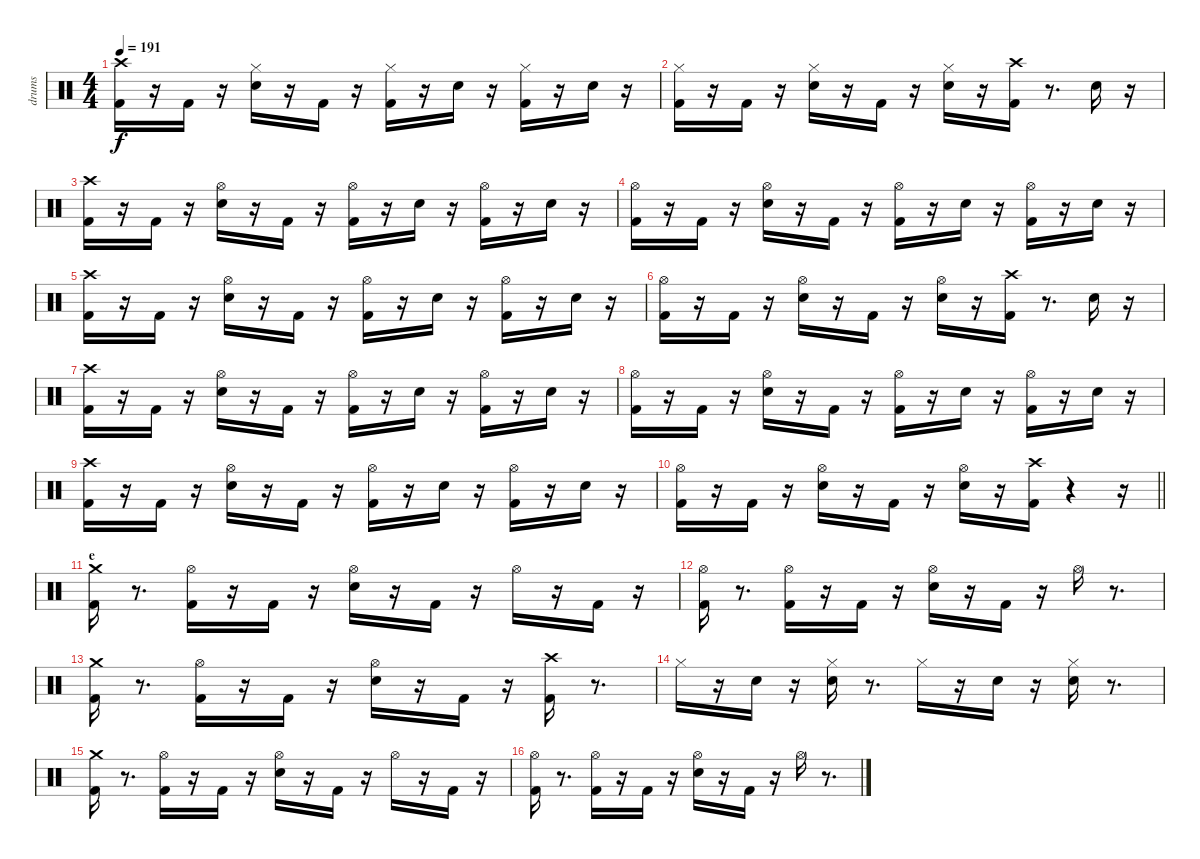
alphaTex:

\track ("drums" "drums") {instrument percussion}
\staff {score}
\articulation defaults
\ts (4 4)
\tempo 191
\clef neutral
\ks c
("Kick (hit) 2" "Crash high (hit)").16{dy f} r.16 "Kick (hit) 2".16 r.16 ("Snare (hit) 2" "Hi-Hat (closed)").16 r.16 "Kick (hit) 2".16 r.16 ("Kick (hit) 2" "Hi-Hat (closed)").16 r.16 "Snare (hit) 2".16 r.16 ("Kick (hit) 2" "Hi-Hat (closed)").16 r.16 "Snare (hit) 2".16 r.16 |
("Kick (hit) 2" "Hi-Hat (closed)").16 r.16 "Kick (hit) 2".16 r.16 ("Snare (hit) 2" "Hi-Hat (closed)").16 r.16 "Kick (hit) 2".16 r.16 ("Snare (hit) 2" "Hi-Hat (closed)").16 r.16 ("Kick (hit) 2" "Crash high (hit)").16 r.8{d} "Snare (hit) 2".16 r.16 |
("Kick (hit) 2" "Crash high (hit)").16 r.16 "Kick (hit) 2".16 r.16 ("Snare (hit) 2" "Hi-Hat (open)").16 r.16 "Kick (hit) 2".16 r.16 ("Kick (hit) 2" "Hi-Hat (open)").16 r.16 "Snare (hit) 2".16 r.16 ("Kick (hit) 2" "Hi-Hat (open)").16 r.16 "Snare (hit) 2".16 r.16 |
("Kick (hit) 2" "Hi-Hat (open)").16 r.16 "Kick (hit) 2".16 r.16 ("Snare (hit) 2" "Hi-Hat (open)").16 r.16 "Kick (hit) 2".16 r.16 ("Kick (hit) 2" "Hi-Hat (open)").16 r.16 "Snare (hit) 2".16 r.16 ("Kick (hit) 2" "Hi-Hat (open)").16 r.16 "Snare (hit) 2".16 r.16 |
("Kick (hit) 2" "Crash high (hit)").16 r.16 "Kick (hit) 2".16 r.16 ("Snare (hit) 2" "Hi-Hat (open)").16 r.16 "Kick (hit) 2".16 r.16 ("Kick (hit) 2" "Hi-Hat (open)").16 r.16 "Snare (hit) 2".16 r.16 ("Kick (hit) 2" "Hi-Hat (open)").16 r.16 "Snare (hit) 2".16 r.16 |
("Kick (hit) 2" "Hi-Hat (open)").16 r.16 "Kick (hit) 2".16 r.16 ("Snare (hit) 2" "Hi-Hat (open)").16 r.16 "Kick (hit) 2".16 r.16 ("Snare (hit) 2" "Hi-Hat (open)").16 r.16 ("Kick (hit) 2" "Crash high (hit)").16 r.8{d} "Snare (hit) 2".16 r.16 |
("Kick (hit) 2" "Crash high (hit)").16 r.16 "Kick (hit) 2".16 r.16 ("Snare (hit) 2" "Hi-Hat (open)").16 r.16 "Kick (hit) 2".16 r.16 ("Kick (hit) 2" "Hi-Hat (open)").16 r.16 "Snare (hit) 2".16 r.16 ("Kick (hit) 2" "Hi-Hat (open)").16 r.16 "Snare (hit) 2".16 r.16 |
("Kick (hit) 2" "Hi-Hat (open)").16 r.16 "Kick (hit) 2".16 r.16 ("Snare (hit) 2" "Hi-Hat (open)").16 r.16 "Kick (hit) 2".16 r.16 ("Kick (hit) 2" "Hi-Hat (open)").16 r.16 "Snare (hit) 2".16 r.16 ("Kick (hit) 2" "Hi-Hat (open)").16 r.16 "Snare (hit) 2".16 r.16 |
("Kick (hit) 2" "Crash high (hit)").16 r.16 "Kick (hit) 2".16 r.16 ("Snare (hit) 2" "Hi-Hat (open)").16 r.16 "Kick (hit) 2".16 r.16 ("Kick (hit) 2" "Hi-Hat (open)").16 r.16 "Snare (hit) 2".16 r.16 ("Kick (hit) 2" "Hi-Hat (open)").16 r.16 "Snare (hit) 2".16 r.16 |
\barLineRight lightlight
("Kick (hit) 2" "Hi-Hat (open)").16 r.16 "Kick (hit) 2".16 r.16 ("Snare (hit) 2" "Hi-Hat (open)").16 r.16 "Kick (hit) 2".16 r.16 ("Snare (hit) 2" "Hi-Hat (open)").16 r.16 ("Kick (hit) 2" "Crash high (hit)").16 r.4 r.16 |
\section ("" "e")
("Kick (hit) 2" "Crash medium (hit)").16 r.8{d} ("Kick (hit) 2" "Hi-Hat (open)").16 r.16 "Kick (hit) 2".16 r.16 ("Snare (hit) 2" "Hi-Hat (open)").16 r.16 "Kick (hit) 2".16 r.16 "Hi-Hat (open)".16 r.16 "Kick (hit) 2".16 r.16 |
("Kick (hit) 2" "Hi-Hat (open)").16 r.8{d} ("Kick (hit) 2" "Hi-Hat (open)").16 r.16 "Kick (hit) 2".16 r.16 ("Snare (hit) 2" "Hi-Hat (open)").16 r.16 "Kick (hit) 2".16 r.16 "Hi-Hat (open)".16 r.8{d} |
("Kick (hit) 2" "Crash medium (hit)").16 r.8{d} ("Kick (hit) 2" "Hi-Hat (open)").16 r.16 "Kick (hit) 2".16 r.16 ("Snare (hit) 2" "Hi-Hat (open)").16 r.16 "Kick (hit) 2".16 r.16 ("Kick (hit) 2" "Crash high (hit)").16 r.8{d} |
"Hi-Hat (closed)".16 r.16 "Snare (hit) 2".16 r.16 ("Snare (hit) 2" "Hi-Hat (closed)").16 r.8{d} "Hi-Hat (closed)".16 r.16 "Snare (hit) 2".16 r.16 ("Snare (hit) 2" "Hi-Hat (closed)").16 r.8{d} |
("Kick (hit) 2" "Crash medium (hit)").16 r.8{d} ("Kick (hit) 2" "Hi-Hat (open)").16 r.16 "Kick (hit) 2".16 r.16 ("Snare (hit) 2" "Hi-Hat (open)").16 r.16 "Kick (hit) 2".16 r.16 "Hi-Hat (open)".16 r.16 "Kick (hit) 2".16 r.16 |
("Kick (hit) 2" "Hi-Hat (open)").16 r.8{d} ("Kick (hit) 2" "Hi-Hat (open)").16 r.16 "Kick (hit) 2".16 r.16 ("Snare (hit) 2" "Hi-Hat (open)").16 r.16 "Kick (hit) 2".16 r.16 "Hi-Hat (open)".16 r.8{d}
